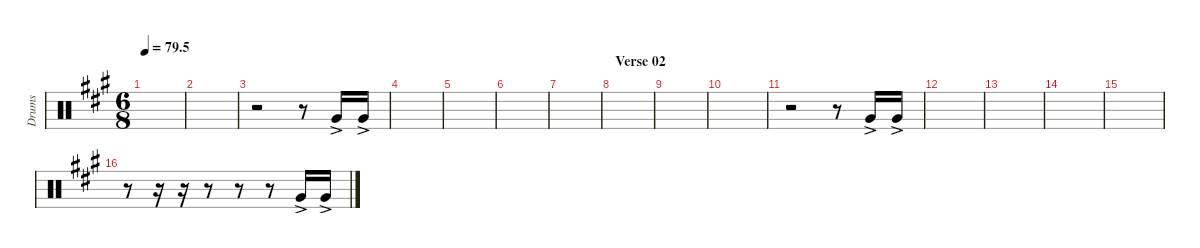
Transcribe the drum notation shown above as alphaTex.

\defaultSystemsLayout 4
\hideDynamics
\bracketExtendMode nobrackets
\otherSystemsTrackNameOrientation horizontal
\track ("Tom 04" "Drums") {instrument percussion}
\staff {score}
\articulation defaults
\ts (6 8)
\tempo
79.5
\accidentals auto
\clef neutral
\ottava regular
\simile none
\scale
0.333333
\ks a
|
\scale
0.333333 |
\scale
0.333333 r.2 r.8 "Very Low Tom (hit)"{ac acc forcenatural}.16 "Very Low Tom (hit)"{ac acc forcenatural}.16 |
\scale
0.333333 |
\scale
0.333333 |
\scale
0.333333 |
\scale
0.333333 |
\section ("" "Verse 02")
\scale
0.333333 |
\scale
0.333333 |
\scale
0.333333 |
\scale
0.333333 r.2 r.8 "Very Low Tom (hit)"{ac acc forcenatural}.16 "Very Low Tom (hit)"{ac acc forcenatural}.16 |
\scale
0.333333 |
\scale
0.333333 |
\scale
0.333333 |
\scale
0.333333 |
\scale
0.333333 r.8 r.16 r.16 r.8 r.8 r.8 "Very Low Tom (hit)"{ac acc forcenatural}.16 "Very Low Tom (hit)"{ac acc forcenatural}.16
